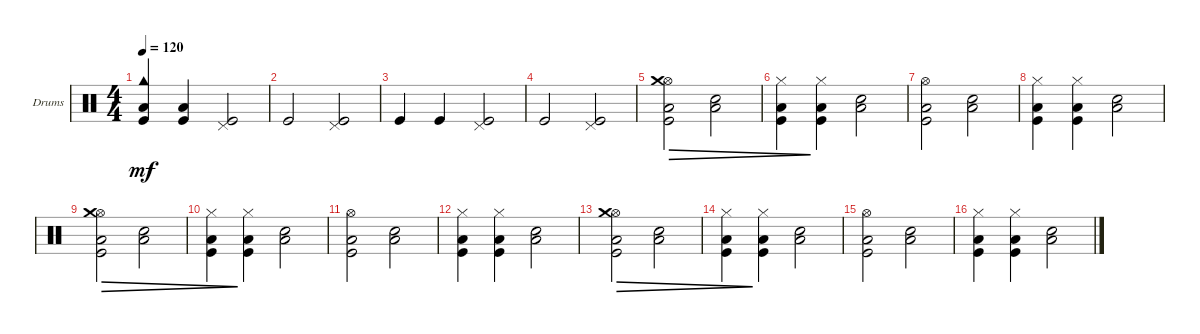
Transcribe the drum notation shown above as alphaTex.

\bracketExtendMode groupsimilarinstruments
\firstSystemTrackNameOrientation horizontal
\otherSystemsTrackNameOrientation horizontal
\track ("Drumkit" "Drums") {instrument percussion}
\staff {score}
\articulation defaults
\ts (4 4)
\tempo 120
\clef neutral
\ks c
("Kick (hit)" "Cowbell high (hit)" "Low Tom (hit)").4{dy mf} ("Kick (hit)" "Low Tom (hit)").4 ("Kick (hit)" "Pedal Hi-Hat (hit)").2 |
"Kick (hit)".2 ("Pedal Hi-Hat (hit)" "Kick (hit)").2 |
"Kick (hit)".4 "Kick (hit)".4 ("Kick (hit)" "Pedal Hi-Hat (hit)").2 |
"Kick (hit)".2 ("Pedal Hi-Hat (hit)" "Kick (hit)").2 |
("Kick (hit)" "Hi-Hat (open)" "Low Tom (hit)" "Crash medium (hit)").2{dec} ("Snare (hit) 2" "Low Tom (hit)").2{dec} |
("Kick (hit)" "Low Tom (hit)" "Hi-Hat (closed)").4{dec} ("Kick (hit)" "Low Tom (hit)" "Hi-Hat (closed)").4 ("Snare (hit) 2" "Low Tom (hit)").2 |
("Kick (hit)" "Hi-Hat (open)" "Low Tom (hit)").2 ("Snare (hit) 2" "Low Tom (hit)").2 |
("Kick (hit)" "Low Tom (hit)" "Hi-Hat (closed)").4 ("Kick (hit)" "Low Tom (hit)" "Hi-Hat (closed)").4 ("Snare (hit) 2" "Low Tom (hit)").2 |
("Kick (hit)" "Hi-Hat (open)" "Low Tom (hit)" "Crash medium (hit)").2{dec} ("Low Tom (hit)" "Snare (hit) 2").2{dec} |
("Kick (hit)" "Low Tom (hit)" "Hi-Hat (closed)").4{dec} ("Kick (hit)" "Low Tom (hit)" "Hi-Hat (closed)").4 ("Snare (hit) 2" "Low Tom (hit)").2 |
("Kick (hit)" "Hi-Hat (open)" "Low Tom (hit)").2 ("Snare (hit) 2" "Low Tom (hit)").2 |
("Kick (hit)" "Low Tom (hit)" "Hi-Hat (closed)").4 ("Kick (hit)" "Low Tom (hit)" "Hi-Hat (closed)").4 ("Snare (hit) 2" "Low Tom (hit)").2 |
("Kick (hit)" "Hi-Hat (open)" "Low Tom (hit)" "Crash medium (hit)").2{dec} ("Snare (hit) 2" "Low Tom (hit)").2{dec} |
("Kick (hit)" "Low Tom (hit)" "Hi-Hat (closed)").4{dec} ("Kick (hit)" "Low Tom (hit)" "Hi-Hat (closed)").4 ("Snare (hit) 2" "Low Tom (hit)").2 |
("Kick (hit)" "Hi-Hat (open)" "Low Tom (hit)").2 ("Snare (hit) 2" "Low Tom (hit)").2 |
("Kick (hit)" "Low Tom (hit)" "Hi-Hat (closed)").4 ("Kick (hit)" "Low Tom (hit)" "Hi-Hat (closed)").4 ("Snare (hit) 2" "Low Tom (hit)").2
